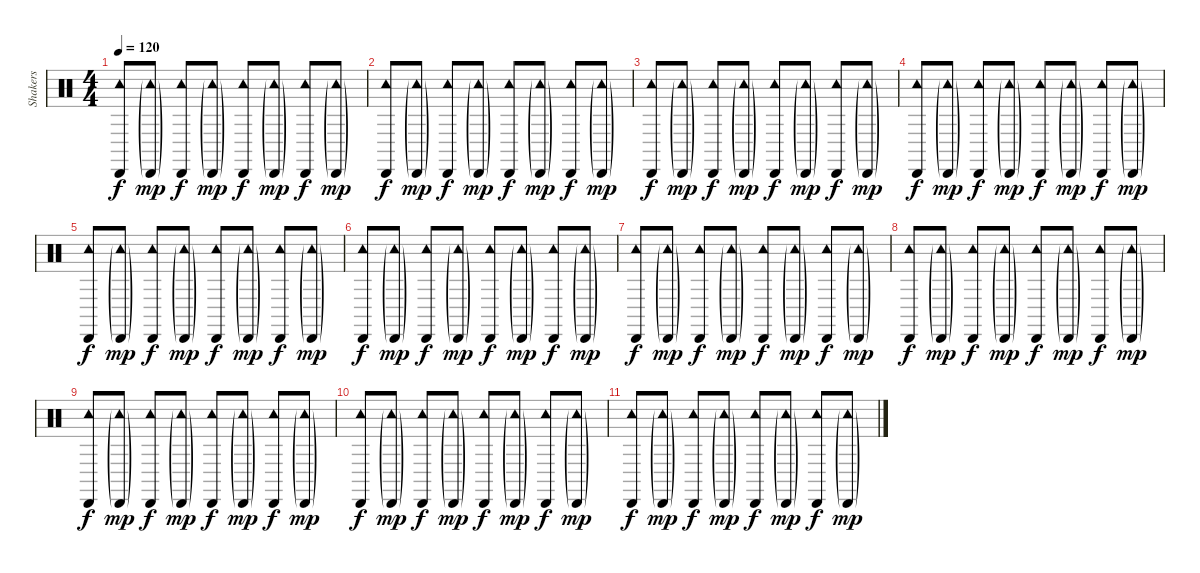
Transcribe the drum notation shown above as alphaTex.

\track ("Shakers" "Shakers") {instrument percussion}
\staff {score}
\articulation defaults
\ts (4 4)
\tempo 120
\clef neutral
\ks c
("Cabasa (hit)" "Tambourine (hit)").8{dy f} ("Cabasa (hit)"{g} "Tambourine (hit)"{g}).8{dy mp} ("Cabasa (hit)" "Tambourine (hit)").8{dy f} ("Cabasa (hit)"{g} "Tambourine (hit)"{g}).8{dy mp} ("Cabasa (hit)" "Tambourine (hit)").8{dy f} ("Cabasa (hit)"{g} "Tambourine (hit)"{g}).8{dy mp} ("Cabasa (hit)" "Tambourine (hit)").8{dy f} ("Cabasa (hit)"{g} "Tambourine (hit)"{g}).8{dy mp} |
("Cabasa (hit)" "Tambourine (hit)").8{dy f} ("Cabasa (hit)"{g} "Tambourine (hit)"{g}).8{dy mp} ("Cabasa (hit)" "Tambourine (hit)").8{dy f} ("Cabasa (hit)"{g} "Tambourine (hit)"{g}).8{dy mp} ("Cabasa (hit)" "Tambourine (hit)").8{dy f} ("Cabasa (hit)"{g} "Tambourine (hit)"{g}).8{dy mp} ("Cabasa (hit)" "Tambourine (hit)").8{dy f} ("Cabasa (hit)"{g} "Tambourine (hit)"{g}).8{dy mp} |
("Cabasa (hit)" "Tambourine (hit)").8{dy f} ("Cabasa (hit)"{g} "Tambourine (hit)"{g}).8{dy mp} ("Cabasa (hit)" "Tambourine (hit)").8{dy f} ("Cabasa (hit)"{g} "Tambourine (hit)"{g}).8{dy mp} ("Cabasa (hit)" "Tambourine (hit)").8{dy f} ("Cabasa (hit)"{g} "Tambourine (hit)"{g}).8{dy mp} ("Cabasa (hit)" "Tambourine (hit)").8{dy f} ("Cabasa (hit)"{g} "Tambourine (hit)"{g}).8{dy mp} |
("Cabasa (hit)" "Tambourine (hit)").8{dy f} ("Cabasa (hit)"{g} "Tambourine (hit)"{g}).8{dy mp} ("Cabasa (hit)" "Tambourine (hit)").8{dy f} ("Cabasa (hit)"{g} "Tambourine (hit)"{g}).8{dy mp} ("Cabasa (hit)" "Tambourine (hit)").8{dy f} ("Cabasa (hit)"{g} "Tambourine (hit)"{g}).8{dy mp} ("Cabasa (hit)" "Tambourine (hit)").8{dy f} ("Cabasa (hit)"{g} "Tambourine (hit)"{g}).8{dy mp} |
("Cabasa (hit)" "Tambourine (hit)").8{dy f} ("Cabasa (hit)"{g} "Tambourine (hit)"{g}).8{dy mp} ("Cabasa (hit)" "Tambourine (hit)").8{dy f} ("Cabasa (hit)"{g} "Tambourine (hit)"{g}).8{dy mp} ("Cabasa (hit)" "Tambourine (hit)").8{dy f} ("Cabasa (hit)"{g} "Tambourine (hit)"{g}).8{dy mp} ("Cabasa (hit)" "Tambourine (hit)").8{dy f} ("Cabasa (hit)"{g} "Tambourine (hit)"{g}).8{dy mp} |
("Cabasa (hit)" "Tambourine (hit)").8{dy f} ("Cabasa (hit)"{g} "Tambourine (hit)"{g}).8{dy mp} ("Cabasa (hit)" "Tambourine (hit)").8{dy f} ("Cabasa (hit)"{g} "Tambourine (hit)"{g}).8{dy mp} ("Cabasa (hit)" "Tambourine (hit)").8{dy f} ("Cabasa (hit)"{g} "Tambourine (hit)"{g}).8{dy mp} ("Cabasa (hit)" "Tambourine (hit)").8{dy f} ("Cabasa (hit)"{g} "Tambourine (hit)"{g}).8{dy mp} |
("Cabasa (hit)" "Tambourine (hit)").8{dy f} ("Cabasa (hit)"{g} "Tambourine (hit)"{g}).8{dy mp} ("Cabasa (hit)" "Tambourine (hit)").8{dy f} ("Cabasa (hit)"{g} "Tambourine (hit)"{g}).8{dy mp} ("Cabasa (hit)" "Tambourine (hit)").8{dy f} ("Cabasa (hit)"{g} "Tambourine (hit)"{g}).8{dy mp} ("Cabasa (hit)" "Tambourine (hit)").8{dy f} ("Cabasa (hit)"{g} "Tambourine (hit)"{g}).8{dy mp} |
("Cabasa (hit)" "Tambourine (hit)").8{dy f} ("Cabasa (hit)"{g} "Tambourine (hit)"{g}).8{dy mp} ("Cabasa (hit)" "Tambourine (hit)").8{dy f} ("Cabasa (hit)"{g} "Tambourine (hit)"{g}).8{dy mp} ("Cabasa (hit)" "Tambourine (hit)").8{dy f} ("Cabasa (hit)"{g} "Tambourine (hit)"{g}).8{dy mp} ("Cabasa (hit)" "Tambourine (hit)").8{dy f} ("Cabasa (hit)"{g} "Tambourine (hit)"{g}).8{dy mp} |
("Cabasa (hit)" "Tambourine (hit)").8{dy f} ("Cabasa (hit)"{g} "Tambourine (hit)"{g}).8{dy mp} ("Cabasa (hit)" "Tambourine (hit)").8{dy f} ("Cabasa (hit)"{g} "Tambourine (hit)"{g}).8{dy mp} ("Cabasa (hit)" "Tambourine (hit)").8{dy f} ("Cabasa (hit)"{g} "Tambourine (hit)"{g}).8{dy mp} ("Cabasa (hit)" "Tambourine (hit)").8{dy f} ("Cabasa (hit)"{g} "Tambourine (hit)"{g}).8{dy mp} |
("Cabasa (hit)" "Tambourine (hit)").8{dy f} ("Cabasa (hit)"{g} "Tambourine (hit)"{g}).8{dy mp} ("Cabasa (hit)" "Tambourine (hit)").8{dy f} ("Cabasa (hit)"{g} "Tambourine (hit)"{g}).8{dy mp} ("Cabasa (hit)" "Tambourine (hit)").8{dy f} ("Cabasa (hit)"{g} "Tambourine (hit)"{g}).8{dy mp} ("Cabasa (hit)" "Tambourine (hit)").8{dy f} ("Cabasa (hit)"{g} "Tambourine (hit)"{g}).8{dy mp} |
("Cabasa (hit)" "Tambourine (hit)").8{dy f} ("Cabasa (hit)"{g} "Tambourine (hit)"{g}).8{dy mp} ("Cabasa (hit)" "Tambourine (hit)").8{dy f} ("Cabasa (hit)"{g} "Tambourine (hit)"{g}).8{dy mp} ("Cabasa (hit)" "Tambourine (hit)").8{dy f} ("Cabasa (hit)"{g} "Tambourine (hit)"{g}).8{dy mp} ("Cabasa (hit)" "Tambourine (hit)").8{dy f} ("Cabasa (hit)"{g} "Tambourine (hit)"{g}).8{dy mp}
